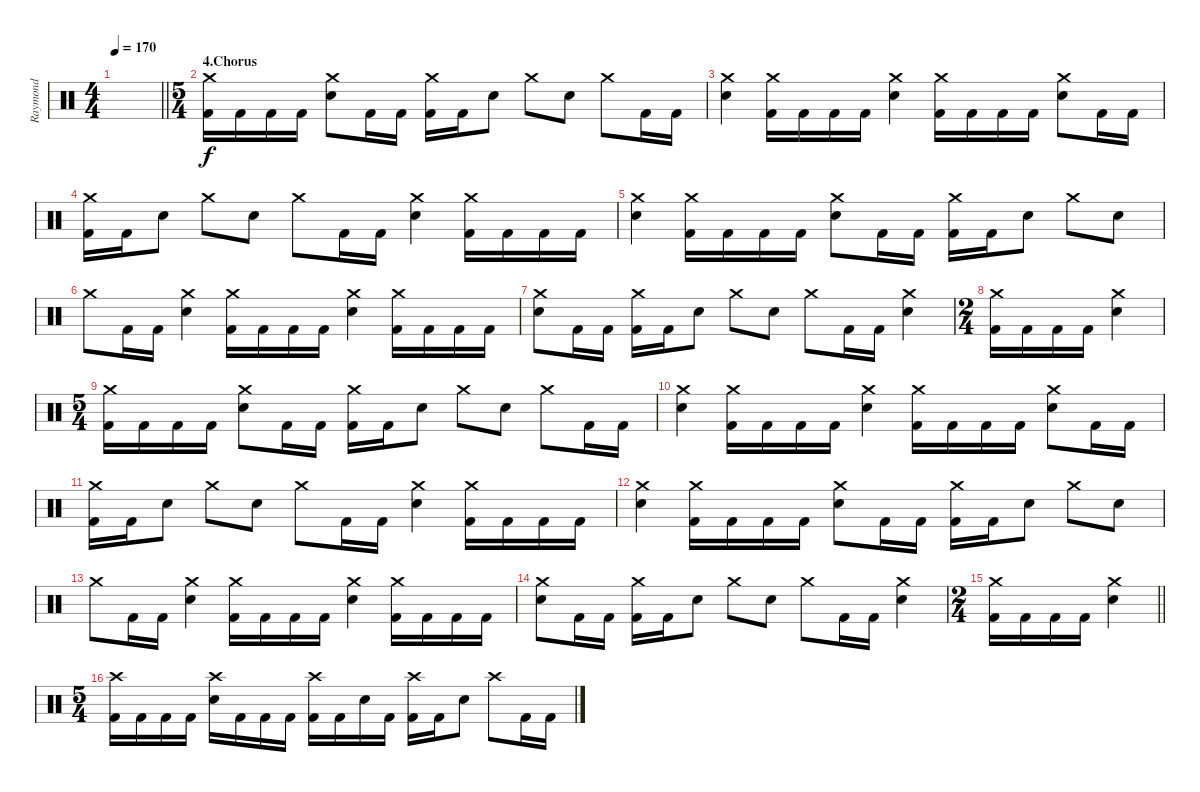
\track ("Raymond" "Raymond") {instrument percussion}
\staff {score}
\articulation defaults
\ts (4 4)
\tempo 170
\clef neutral
\barLineRight lightlight
\ks c
|
\ts (5 4)
\section ("" "4.Chorus")
("Crash medium (hit)" "Kick (hit) 2").16 "Kick (hit) 2".16 "Kick (hit) 2".16 "Kick (hit) 2".16 ("Crash medium (hit)" "Electric Snare (hit)").8 "Kick (hit) 2".16 "Kick (hit) 2".16 ("Crash medium (hit)" "Kick (hit) 2").16 "Kick (hit) 2".16 "Electric Snare (hit)".8 "Crash medium (hit)".8 "Electric Snare (hit)".8 "Crash medium (hit)".8 "Kick (hit) 2".16 "Kick (hit) 2".16 |
("Crash medium (hit)" "Electric Snare (hit)").4 ("Crash medium (hit)" "Kick (hit) 2").16 "Kick (hit) 2".16 "Kick (hit) 2".16 "Kick (hit) 2".16 ("Crash medium (hit)" "Electric Snare (hit)").4 ("Crash medium (hit)" "Kick (hit) 2").16 "Kick (hit) 2".16 "Kick (hit) 2".16 "Kick (hit) 2".16 ("Crash medium (hit)" "Electric Snare (hit)").8 "Kick (hit) 2".16 "Kick (hit) 2".16 |
("Crash medium (hit)" "Kick (hit) 2").16 "Kick (hit) 2".16 "Electric Snare (hit)".8 "Crash medium (hit)".8 "Electric Snare (hit)".8 "Crash medium (hit)".8 "Kick (hit) 2".16 "Kick (hit) 2".16 ("Crash medium (hit)" "Electric Snare (hit)").4 ("Crash medium (hit)" "Kick (hit) 2").16 "Kick (hit) 2".16 "Kick (hit) 2".16 "Kick (hit) 2".16 |
("Crash medium (hit)" "Electric Snare (hit)").4 ("Crash medium (hit)" "Kick (hit) 2").16 "Kick (hit) 2".16 "Kick (hit) 2".16 "Kick (hit) 2".16 ("Crash medium (hit)" "Electric Snare (hit)").8 "Kick (hit) 2".16 "Kick (hit) 2".16 ("Crash medium (hit)" "Kick (hit) 2").16 "Kick (hit) 2".16 "Electric Snare (hit)".8 "Crash medium (hit)".8 "Electric Snare (hit)".8 |
"Crash medium (hit)".8 "Kick (hit) 2".16 "Kick (hit) 2".16 ("Crash medium (hit)" "Electric Snare (hit)").4 ("Crash medium (hit)" "Kick (hit) 2").16 "Kick (hit) 2".16 "Kick (hit) 2".16 "Kick (hit) 2".16 ("Crash medium (hit)" "Electric Snare (hit)").4 ("Crash medium (hit)" "Kick (hit) 2").16 "Kick (hit) 2".16 "Kick (hit) 2".16 "Kick (hit) 2".16 |
("Crash medium (hit)" "Electric Snare (hit)").8 "Kick (hit) 2".16 "Kick (hit) 2".16 ("Crash medium (hit)" "Kick (hit) 2").16 "Kick (hit) 2".16 "Electric Snare (hit)".8 "Crash medium (hit)".8 "Electric Snare (hit)".8 "Crash medium (hit)".8 "Kick (hit) 2".16 "Kick (hit) 2".16 ("Crash medium (hit)" "Electric Snare (hit)").4 |
\ts (2 4)
("Crash medium (hit)" "Kick (hit) 2").16 "Kick (hit) 2".16 "Kick (hit) 2".16 "Kick (hit) 2".16 ("Crash medium (hit)" "Electric Snare (hit)").4 |
\ts (5 4)
("Crash medium (hit)" "Kick (hit) 2").16 "Kick (hit) 2".16 "Kick (hit) 2".16 "Kick (hit) 2".16 ("Crash medium (hit)" "Electric Snare (hit)").8 "Kick (hit) 2".16 "Kick (hit) 2".16 ("Crash medium (hit)" "Kick (hit) 2").16 "Kick (hit) 2".16 "Electric Snare (hit)".8 "Crash medium (hit)".8 "Electric Snare (hit)".8 "Crash medium (hit)".8 "Kick (hit) 2".16 "Kick (hit) 2".16 |
("Crash medium (hit)" "Electric Snare (hit)").4 ("Crash medium (hit)" "Kick (hit) 2").16 "Kick (hit) 2".16 "Kick (hit) 2".16 "Kick (hit) 2".16 ("Crash medium (hit)" "Electric Snare (hit)").4 ("Crash medium (hit)" "Kick (hit) 2").16 "Kick (hit) 2".16 "Kick (hit) 2".16 "Kick (hit) 2".16 ("Crash medium (hit)" "Electric Snare (hit)").8 "Kick (hit) 2".16 "Kick (hit) 2".16 |
("Crash medium (hit)" "Kick (hit) 2").16 "Kick (hit) 2".16 "Electric Snare (hit)".8 "Crash medium (hit)".8 "Electric Snare (hit)".8 "Crash medium (hit)".8 "Kick (hit) 2".16 "Kick (hit) 2".16 ("Crash medium (hit)" "Electric Snare (hit)").4 ("Crash medium (hit)" "Kick (hit) 2").16 "Kick (hit) 2".16 "Kick (hit) 2".16 "Kick (hit) 2".16 |
("Crash medium (hit)" "Electric Snare (hit)").4 ("Crash medium (hit)" "Kick (hit) 2").16 "Kick (hit) 2".16 "Kick (hit) 2".16 "Kick (hit) 2".16 ("Crash medium (hit)" "Electric Snare (hit)").8 "Kick (hit) 2".16 "Kick (hit) 2".16 ("Crash medium (hit)" "Kick (hit) 2").16 "Kick (hit) 2".16 "Electric Snare (hit)".8 "Crash medium (hit)".8 "Electric Snare (hit)".8 |
"Crash medium (hit)".8 "Kick (hit) 2".16 "Kick (hit) 2".16 ("Crash medium (hit)" "Electric Snare (hit)").4 ("Crash medium (hit)" "Kick (hit) 2").16 "Kick (hit) 2".16 "Kick (hit) 2".16 "Kick (hit) 2".16 ("Crash medium (hit)" "Electric Snare (hit)").4 ("Crash medium (hit)" "Kick (hit) 2").16 "Kick (hit) 2".16 "Kick (hit) 2".16 "Kick (hit) 2".16 |
("Crash medium (hit)" "Electric Snare (hit)").8 "Kick (hit) 2".16 "Kick (hit) 2".16 ("Crash medium (hit)" "Kick (hit) 2").16 "Kick (hit) 2".16 "Electric Snare (hit)".8 "Crash medium (hit)".8 "Electric Snare (hit)".8 "Crash medium (hit)".8 "Kick (hit) 2".16 "Kick (hit) 2".16 ("Crash medium (hit)" "Electric Snare (hit)").4 |
\ts (2 4)
\barLineRight lightlight
("Crash medium (hit)" "Kick (hit) 2").16 "Kick (hit) 2".16 "Kick (hit) 2".16 "Kick (hit) 2".16 ("Crash medium (hit)" "Electric Snare (hit)").4 |
\ts (5 4)
\section ("" "")
("Crash high (hit)" "Kick (hit) 2").16 "Kick (hit) 2".16 "Kick (hit) 2".16 "Kick (hit) 2".16 ("Crash high (hit)" "Electric Snare (hit)").16 "Kick (hit) 2".16 "Kick (hit) 2".16 "Kick (hit) 2".16 ("Crash high (hit)" "Kick (hit) 2").16 "Kick (hit) 2".16 "Electric Snare (hit)".16 "Kick (hit) 2".16 ("Crash high (hit)" "Kick (hit) 2").16 "Kick (hit) 2".16 "Electric Snare (hit)".8 "Crash high (hit)".8 "Kick (hit) 2".16 "Kick (hit) 2".16
